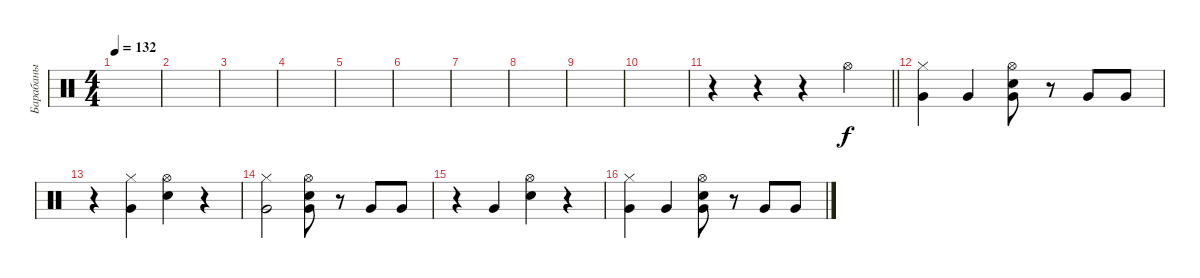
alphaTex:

\track ("Барабаны" "Барабаны") {instrument percussion}
\staff {score}
\articulation defaults
\ts (4 4)
\tempo 132
\clef neutral
\ks c
|
|
|
|
|
|
|
|
|
|
\barLineRight lightlight
r.4 r.4 r.4 "Hi-Hat (open)".4 |
("Hi-Hat (closed)" "Very Low Tom (hit)").4{dy f} "Very Low Tom (hit)".4 ("Electric Snare (hit)" "Hi-Hat (open)" "Very Low Tom (hit)").8 r.8 "Very Low Tom (hit)".8 "Very Low Tom (hit)".8 |
r.4 ("Very Low Tom (hit)" "Hi-Hat (closed)").4 ("Snare (hit) 2" "Hi-Hat (open)").4 r.4 |
("Hi-Hat (closed)" "Very Low Tom (hit)").2 ("Electric Snare (hit)" "Hi-Hat (open)" "Very Low Tom (hit)").8 r.8 "Very Low Tom (hit)".8 "Very Low Tom (hit)".8 |
r.4 "Very Low Tom (hit)".4 ("Snare (hit) 2" "Hi-Hat (open)").4 r.4 |
("Hi-Hat (closed)" "Very Low Tom (hit)").4 "Very Low Tom (hit)".4 ("Electric Snare (hit)" "Hi-Hat (open)" "Very Low Tom (hit)").8 r.8 "Very Low Tom (hit)".8 "Very Low Tom (hit)".8
